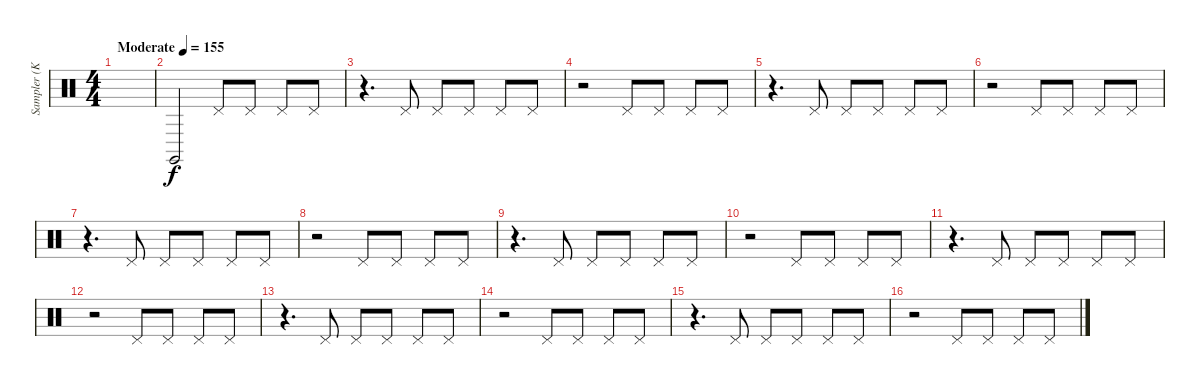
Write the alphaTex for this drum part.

\track ("Sampler (Korg Radias)" "Sampler (K") {instrument percussion}
\staff {score}
\articulation defaults
\ts (4 4)
\tempo (155 "Moderate")
\clef neutral
\ks c
|
"Claves (hit)".2 "Pedal Hi-Hat (hit)".8 "Pedal Hi-Hat (hit)".8 "Pedal Hi-Hat (hit)".8 "Pedal Hi-Hat (hit)".8 |
r.4{d} "Pedal Hi-Hat (hit)".8 "Pedal Hi-Hat (hit)".8 "Pedal Hi-Hat (hit)".8 "Pedal Hi-Hat (hit)".8 "Pedal Hi-Hat (hit)".8 |
r.2 "Pedal Hi-Hat (hit)".8 "Pedal Hi-Hat (hit)".8 "Pedal Hi-Hat (hit)".8 "Pedal Hi-Hat (hit)".8 |
r.4{d} "Pedal Hi-Hat (hit)".8 "Pedal Hi-Hat (hit)".8 "Pedal Hi-Hat (hit)".8 "Pedal Hi-Hat (hit)".8 "Pedal Hi-Hat (hit)".8 |
r.2 "Pedal Hi-Hat (hit)".8 "Pedal Hi-Hat (hit)".8 "Pedal Hi-Hat (hit)".8 "Pedal Hi-Hat (hit)".8 |
r.4{d} "Pedal Hi-Hat (hit)".8 "Pedal Hi-Hat (hit)".8 "Pedal Hi-Hat (hit)".8 "Pedal Hi-Hat (hit)".8 "Pedal Hi-Hat (hit)".8 |
r.2 "Pedal Hi-Hat (hit)".8 "Pedal Hi-Hat (hit)".8 "Pedal Hi-Hat (hit)".8 "Pedal Hi-Hat (hit)".8 |
r.4{d} "Pedal Hi-Hat (hit)".8 "Pedal Hi-Hat (hit)".8 "Pedal Hi-Hat (hit)".8 "Pedal Hi-Hat (hit)".8 "Pedal Hi-Hat (hit)".8 |
r.2 "Pedal Hi-Hat (hit)".8 "Pedal Hi-Hat (hit)".8 "Pedal Hi-Hat (hit)".8 "Pedal Hi-Hat (hit)".8 |
r.4{d} "Pedal Hi-Hat (hit)".8 "Pedal Hi-Hat (hit)".8 "Pedal Hi-Hat (hit)".8 "Pedal Hi-Hat (hit)".8 "Pedal Hi-Hat (hit)".8 |
r.2 "Pedal Hi-Hat (hit)".8 "Pedal Hi-Hat (hit)".8 "Pedal Hi-Hat (hit)".8 "Pedal Hi-Hat (hit)".8 |
r.4{d} "Pedal Hi-Hat (hit)".8 "Pedal Hi-Hat (hit)".8 "Pedal Hi-Hat (hit)".8 "Pedal Hi-Hat (hit)".8 "Pedal Hi-Hat (hit)".8 |
r.2 "Pedal Hi-Hat (hit)".8 "Pedal Hi-Hat (hit)".8 "Pedal Hi-Hat (hit)".8 "Pedal Hi-Hat (hit)".8 |
r.4{d} "Pedal Hi-Hat (hit)".8 "Pedal Hi-Hat (hit)".8 "Pedal Hi-Hat (hit)".8 "Pedal Hi-Hat (hit)".8 "Pedal Hi-Hat (hit)".8 |
r.2 "Pedal Hi-Hat (hit)".8 "Pedal Hi-Hat (hit)".8 "Pedal Hi-Hat (hit)".8 "Pedal Hi-Hat (hit)".8
